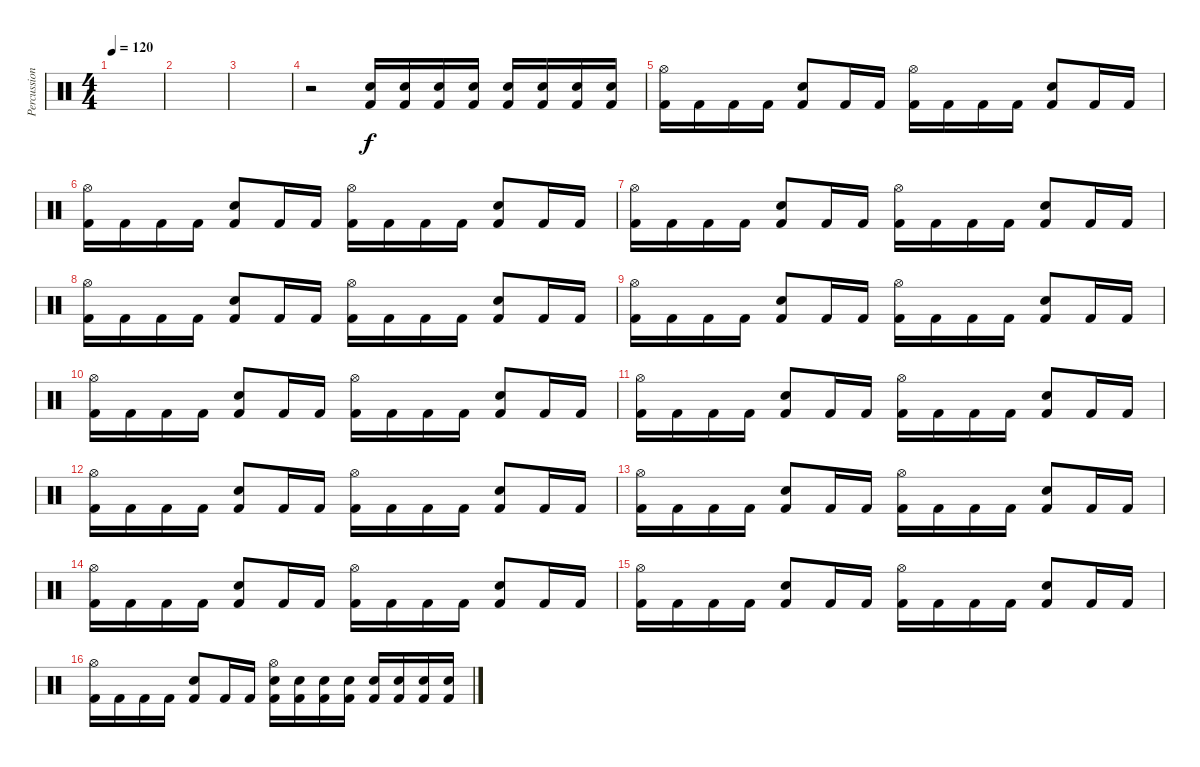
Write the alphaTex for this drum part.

\track ("Percussion - Ryan Vikedal" "Percussion") {instrument percussion}
\staff {score}
\articulation defaults
\ts (4 4)
\tempo 120
\clef neutral
\ks c
|
|
|
r.2 ("Snare (hit) 2" "Kick (hit) 2").16 ("Snare (hit) 2" "Kick (hit) 2").16 ("Snare (hit) 2" "Kick (hit) 2").16 ("Snare (hit) 2" "Kick (hit) 2").16 ("Snare (hit) 2" "Kick (hit) 2").16 ("Snare (hit) 2" "Kick (hit) 2").16 ("Snare (hit) 2" "Kick (hit) 2").16 ("Snare (hit) 2" "Kick (hit) 2").16 |
("Hi-Hat (open)" "Kick (hit) 2").16 "Kick (hit) 2".16 "Kick (hit) 2".16 "Kick (hit) 2".16 ("Snare (hit) 2" "Kick (hit) 2").8 "Kick (hit) 2".16 "Kick (hit) 2".16 ("Hi-Hat (open)" "Kick (hit) 2").16 "Kick (hit) 2".16 "Kick (hit) 2".16 "Kick (hit) 2".16 ("Snare (hit) 2" "Kick (hit) 2").8 "Kick (hit) 2".16 "Kick (hit) 2".16 |
("Hi-Hat (open)" "Kick (hit) 2").16 "Kick (hit) 2".16 "Kick (hit) 2".16 "Kick (hit) 2".16 ("Snare (hit) 2" "Kick (hit) 2").8 "Kick (hit) 2".16 "Kick (hit) 2".16 ("Hi-Hat (open)" "Kick (hit) 2").16 "Kick (hit) 2".16 "Kick (hit) 2".16 "Kick (hit) 2".16 ("Snare (hit) 2" "Kick (hit) 2").8 "Kick (hit) 2".16 "Kick (hit) 2".16 |
("Hi-Hat (open)" "Kick (hit) 2").16 "Kick (hit) 2".16 "Kick (hit) 2".16 "Kick (hit) 2".16 ("Snare (hit) 2" "Kick (hit) 2").8 "Kick (hit) 2".16 "Kick (hit) 2".16 ("Hi-Hat (open)" "Kick (hit) 2").16 "Kick (hit) 2".16 "Kick (hit) 2".16 "Kick (hit) 2".16 ("Snare (hit) 2" "Kick (hit) 2").8 "Kick (hit) 2".16 "Kick (hit) 2".16 |
("Hi-Hat (open)" "Kick (hit) 2").16 "Kick (hit) 2".16 "Kick (hit) 2".16 "Kick (hit) 2".16 ("Snare (hit) 2" "Kick (hit) 2").8 "Kick (hit) 2".16 "Kick (hit) 2".16 ("Hi-Hat (open)" "Kick (hit) 2").16 "Kick (hit) 2".16 "Kick (hit) 2".16 "Kick (hit) 2".16 ("Snare (hit) 2" "Kick (hit) 2").8 "Kick (hit) 2".16 "Kick (hit) 2".16 |
("Hi-Hat (open)" "Kick (hit) 2").16 "Kick (hit) 2".16 "Kick (hit) 2".16 "Kick (hit) 2".16 ("Snare (hit) 2" "Kick (hit) 2").8 "Kick (hit) 2".16 "Kick (hit) 2".16 ("Hi-Hat (open)" "Kick (hit) 2").16 "Kick (hit) 2".16 "Kick (hit) 2".16 "Kick (hit) 2".16 ("Snare (hit) 2" "Kick (hit) 2").8 "Kick (hit) 2".16 "Kick (hit) 2".16 |
("Hi-Hat (open)" "Kick (hit) 2").16 "Kick (hit) 2".16 "Kick (hit) 2".16 "Kick (hit) 2".16 ("Snare (hit) 2" "Kick (hit) 2").8 "Kick (hit) 2".16 "Kick (hit) 2".16 ("Hi-Hat (open)" "Kick (hit) 2").16 "Kick (hit) 2".16 "Kick (hit) 2".16 "Kick (hit) 2".16 ("Snare (hit) 2" "Kick (hit) 2").8 "Kick (hit) 2".16 "Kick (hit) 2".16 |
("Hi-Hat (open)" "Kick (hit) 2").16 "Kick (hit) 2".16 "Kick (hit) 2".16 "Kick (hit) 2".16 ("Snare (hit) 2" "Kick (hit) 2").8 "Kick (hit) 2".16 "Kick (hit) 2".16 ("Hi-Hat (open)" "Kick (hit) 2").16 "Kick (hit) 2".16 "Kick (hit) 2".16 "Kick (hit) 2".16 ("Snare (hit) 2" "Kick (hit) 2").8 "Kick (hit) 2".16 "Kick (hit) 2".16 |
("Hi-Hat (open)" "Kick (hit) 2").16 "Kick (hit) 2".16 "Kick (hit) 2".16 "Kick (hit) 2".16 ("Snare (hit) 2" "Kick (hit) 2").8 "Kick (hit) 2".16 "Kick (hit) 2".16 ("Hi-Hat (open)" "Kick (hit) 2").16 "Kick (hit) 2".16 "Kick (hit) 2".16 "Kick (hit) 2".16 ("Snare (hit) 2" "Kick (hit) 2").8 "Kick (hit) 2".16 "Kick (hit) 2".16 |
("Hi-Hat (open)" "Kick (hit) 2").16 "Kick (hit) 2".16 "Kick (hit) 2".16 "Kick (hit) 2".16 ("Snare (hit) 2" "Kick (hit) 2").8 "Kick (hit) 2".16 "Kick (hit) 2".16 ("Hi-Hat (open)" "Kick (hit) 2").16 "Kick (hit) 2".16 "Kick (hit) 2".16 "Kick (hit) 2".16 ("Snare (hit) 2" "Kick (hit) 2").8 "Kick (hit) 2".16 "Kick (hit) 2".16 |
("Hi-Hat (open)" "Kick (hit) 2").16 "Kick (hit) 2".16 "Kick (hit) 2".16 "Kick (hit) 2".16 ("Snare (hit) 2" "Kick (hit) 2").8 "Kick (hit) 2".16 "Kick (hit) 2".16 ("Hi-Hat (open)" "Kick (hit) 2").16 "Kick (hit) 2".16 "Kick (hit) 2".16 "Kick (hit) 2".16 ("Snare (hit) 2" "Kick (hit) 2").8 "Kick (hit) 2".16 "Kick (hit) 2".16 |
("Hi-Hat (open)" "Kick (hit) 2").16 "Kick (hit) 2".16 "Kick (hit) 2".16 "Kick (hit) 2".16 ("Snare (hit) 2" "Kick (hit) 2").8 "Kick (hit) 2".16 "Kick (hit) 2".16 ("Hi-Hat (open)" "Kick (hit) 2").16 "Kick (hit) 2".16 "Kick (hit) 2".16 "Kick (hit) 2".16 ("Snare (hit) 2" "Kick (hit) 2").8 "Kick (hit) 2".16 "Kick (hit) 2".16 |
("Hi-Hat (open)" "Kick (hit) 2").16 "Kick (hit) 2".16 "Kick (hit) 2".16 "Kick (hit) 2".16 ("Snare (hit) 2" "Kick (hit) 2").8 "Kick (hit) 2".16 "Kick (hit) 2".16 ("Hi-Hat (open)" "Snare (hit) 2" "Kick (hit) 2").16 ("Snare (hit) 2" "Kick (hit) 2").16 ("Snare (hit) 2" "Kick (hit) 2").16 ("Snare (hit) 2" "Kick (hit) 2").16 ("Snare (hit) 2" "Kick (hit) 2").16 ("Snare (hit) 2" "Kick (hit) 2").16 ("Snare (hit) 2" "Kick (hit) 2").16 ("Snare (hit) 2" "Kick (hit) 2").16
